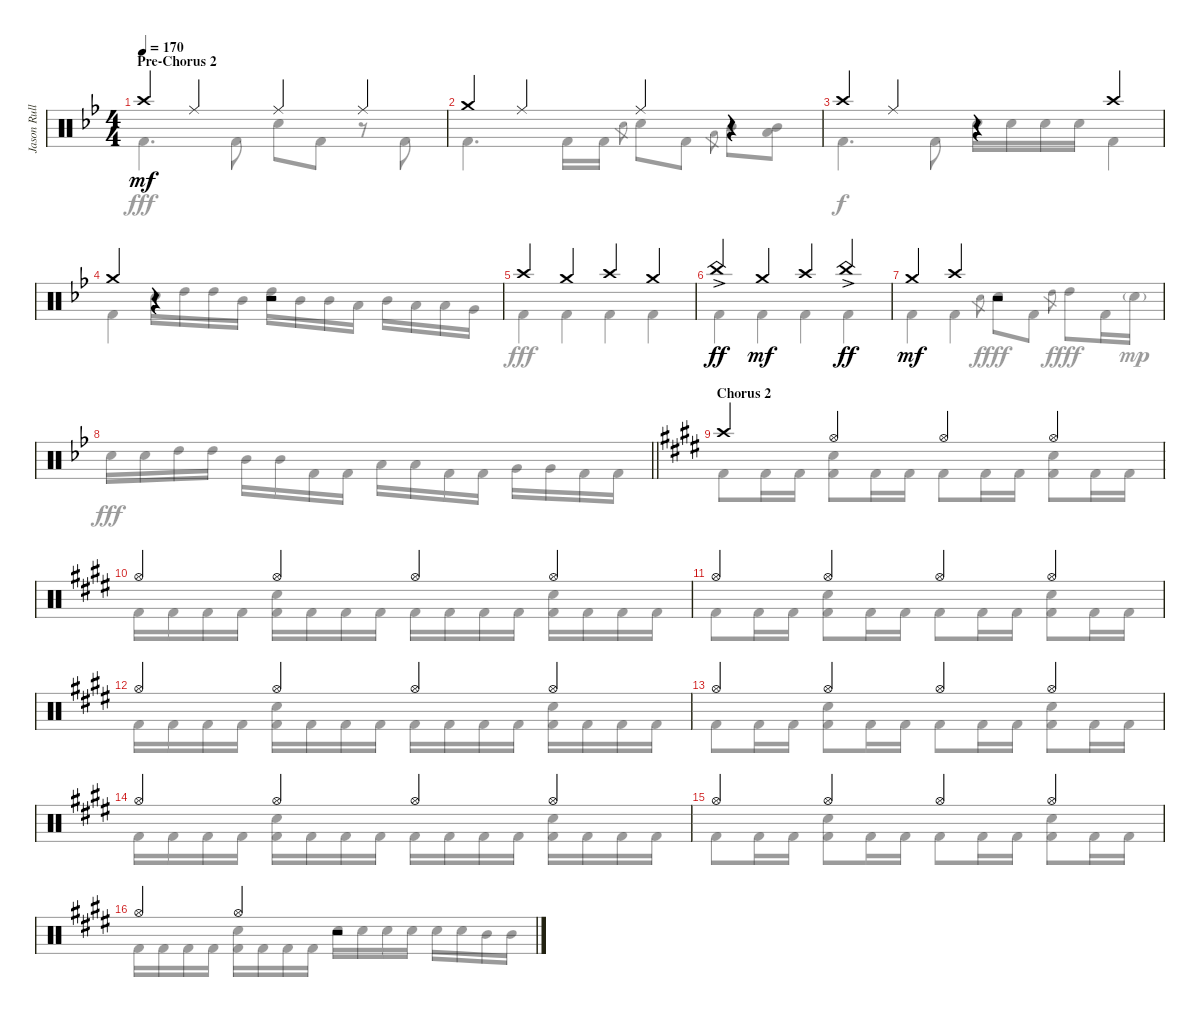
\track ("Jason Rullo Drums" "Jason Rull") {instrument percussion}
\staff {score}
\articulation defaults
\voice
\ts (4 4)
\section ("" "Pre-Chorus 2")
\tempo 170
\clef neutral
\ks gminor "Crash high (hit)".4{dy mf} "Ride (middle)".4 "Ride (middle)".4 "Ride (middle)".4
|
"Crash medium (hit)".4 "Ride (middle)".4 "Ride (middle)".4 r.4 |
"Crash high (hit)".4 "Ride (middle)".4 r.4 "Crash high (hit)".4 |
"Crash medium (hit)".4 r.4 r.2 |
"Crash high (hit)".4 "Crash medium (hit)".4 "Crash high (hit)".4 "Crash medium (hit)".4 |
"China (hit)"{ac}.4{dy ff} "Crash medium (hit)".4{dy mf} "Crash high (hit)".4 "China (hit)"{ac}.4{dy ff} |
"Crash medium (hit)".4{dy mf} "Crash high (hit)".4 r.2 |
\barLineRight lightlight
|
\section ("" "Chorus 2")
\ks c#minor "Crash high (hit)".4 "Hi-Hat (open)".4 "Hi-Hat (open)".4 "Hi-Hat (open)".4
|
"Hi-Hat (open)".4 "Hi-Hat (open)".4 "Hi-Hat (open)".4 "Hi-Hat (open)".4 |
"Hi-Hat (open)".4 "Hi-Hat (open)".4 "Hi-Hat (open)".4 "Hi-Hat (open)".4 |
"Hi-Hat (open)".4 "Hi-Hat (open)".4 "Hi-Hat (open)".4 "Hi-Hat (open)".4 |
"Hi-Hat (open)".4 "Hi-Hat (open)".4 "Hi-Hat (open)".4 "Hi-Hat (open)".4 |
"Hi-Hat (open)".4 "Hi-Hat (open)".4 "Hi-Hat (open)".4 "Hi-Hat (open)".4 |
"Hi-Hat (open)".4 "Hi-Hat (open)".4 "Hi-Hat (open)".4 "Hi-Hat (open)".4 |
"Hi-Hat (open)".4 "Hi-Hat (open)".4 r.2
\voice
\clef neutral
\ottava regular
\simile none
\ks gminor "Kick (hit) 2".4{d dy fff} "Kick (hit) 2".8 "Electric Snare (hit)".8 "Kick (hit) 2".8
r.8 "Kick (hit) 2".8 |
"Kick (hit) 2".4{d} "Kick (hit) 2".16 "Kick (hit) 2".16 "Electric Snare (hit)".8{gr} "Electric Snare (hit)".8 "Kick (hit) 2".8 "Low Tom (hit)".8{gr} "Mid Tom (hit)".8 ("Mid Tom (hit)" "Low Tom (hit)").8 |
"Kick (hit) 2".4{d dy f} "Kick (hit) 2".8 "Electric Snare (hit)".16 "Electric Snare (hit)".16 "Electric Snare (hit)".16 "Electric Snare (hit)".16 "Kick (hit) 2".4 |
"Kick (hit) 2".4 "Electric Snare (hit)".16 "High Tom (hit)".16 "High Tom (hit)".16 "Mid Tom (hit)".16 "High Tom (hit)".16 "Mid Tom (hit)".16 "Mid Tom (hit)".16 "Low Tom (hit)".16 "Mid Tom (hit)".16 "Low Tom (hit)".16 "Low Tom (hit)".16 "Very Low Tom (hit)".16 |
"Kick (hit) 2".4{dy fff} "Kick (hit) 2".4 "Kick (hit) 2".4 "Kick (hit) 2".4 |
"Kick (hit) 2".4 "Kick (hit) 2".4 "Kick (hit) 2".4 "Kick (hit) 2".4 |
"Kick (hit) 2".4 "Kick (hit) 2".4 "Electric Snare (hit)".8{gr dy f} "Electric Snare (hit)".8{dy fff} "Kick (hit) 2".8 "High Tom (hit)".8{gr dy f} "High Tom (hit)".8{dy fff} "Kick (hit) 2".16 "Electric Snare (hit)"{g}.16{dy mp} |
\barLineRight lightlight "Electric Snare (hit)".16{dy fff} "Electric Snare (hit)".16 "High Tom (hit)".16 "High Tom (hit)".16 "Mid Tom (hit)".16 "Mid Tom (hit)".16 "Kick (hit) 2".16 "Kick (hit) 2".16 "Low Tom (hit)".16 "Low Tom (hit)".16 "Kick (hit) 2".16 "Kick (hit) 2".16 "Very Low Tom (hit)".16 "Very Low Tom (hit)".16 "Kick (hit) 2".16 "Kick (hit) 2".16
|
\ks c#minor "Kick (hit) 2".8 "Kick (hit) 2".16 "Kick (hit) 2".16
("Electric Snare (hit)" "Kick (hit) 2").8 "Kick (hit) 2".16 "Kick (hit) 2".16 "Kick (hit) 2".8 "Kick (hit) 2".16 "Kick (hit) 2".16 ("Electric Snare (hit)" "Kick (hit) 2").8 "Kick (hit) 2".16 "Kick (hit) 2".16 |
"Kick (hit) 2".16 "Kick (hit) 2".16 "Kick (hit) 2".16 "Kick (hit) 2".16 ("Electric Snare (hit)" "Kick (hit) 2").16 "Kick (hit) 2".16 "Kick (hit) 2".16 "Kick (hit) 2".16 "Kick (hit) 2".16 "Kick (hit) 2".16 "Kick (hit) 2".16 "Kick (hit) 2".16 ("Electric Snare (hit)" "Kick (hit) 2").16 "Kick (hit) 2".16 "Kick (hit) 2".16 "Kick (hit) 2".16 |
"Kick (hit) 2".8 "Kick (hit) 2".16 "Kick (hit) 2".16 ("Electric Snare (hit)" "Kick (hit) 2").8 "Kick (hit) 2".16 "Kick (hit) 2".16 "Kick (hit) 2".8 "Kick (hit) 2".16 "Kick (hit) 2".16 ("Electric Snare (hit)" "Kick (hit) 2").8 "Kick (hit) 2".16 "Kick (hit) 2".16 |
"Kick (hit) 2".16 "Kick (hit) 2".16 "Kick (hit) 2".16 "Kick (hit) 2".16 ("Electric Snare (hit)" "Kick (hit) 2").16 "Kick (hit) 2".16 "Kick (hit) 2".16 "Kick (hit) 2".16 "Kick (hit) 2".16 "Kick (hit) 2".16 "Kick (hit) 2".16 "Kick (hit) 2".16 ("Electric Snare (hit)" "Kick (hit) 2").16 "Kick (hit) 2".16 "Kick (hit) 2".16 "Kick (hit) 2".16 |
"Kick (hit) 2".8 "Kick (hit) 2".16 "Kick (hit) 2".16 ("Electric Snare (hit)" "Kick (hit) 2").8 "Kick (hit) 2".16 "Kick (hit) 2".16 "Kick (hit) 2".8 "Kick (hit) 2".16 "Kick (hit) 2".16 ("Electric Snare (hit)" "Kick (hit) 2").8 "Kick (hit) 2".16 "Kick (hit) 2".16 |
"Kick (hit) 2".16 "Kick (hit) 2".16 "Kick (hit) 2".16 "Kick (hit) 2".16 ("Electric Snare (hit)" "Kick (hit) 2").16 "Kick (hit) 2".16 "Kick (hit) 2".16 "Kick (hit) 2".16 "Kick (hit) 2".16 "Kick (hit) 2".16 "Kick (hit) 2".16 "Kick (hit) 2".16 ("Electric Snare (hit)" "Kick (hit) 2").16 "Kick (hit) 2".16 "Kick (hit) 2".16 "Kick (hit) 2".16 |
"Kick (hit) 2".8 "Kick (hit) 2".16 "Kick (hit) 2".16 ("Electric Snare (hit)" "Kick (hit) 2").8 "Kick (hit) 2".16 "Kick (hit) 2".16 "Kick (hit) 2".8 "Kick (hit) 2".16 "Kick (hit) 2".16 ("Electric Snare (hit)" "Kick (hit) 2").8 "Kick (hit) 2".16 "Kick (hit) 2".16 |
"Kick (hit) 2".16 "Kick (hit) 2".16 "Kick (hit) 2".16 "Kick (hit) 2".16 ("Electric Snare (hit)" "Kick (hit) 2").16 "Kick (hit) 2".16 "Kick (hit) 2".16 "Kick (hit) 2".16 "Electric Snare (hit)".16 "Electric Snare (hit)".16 "Electric Snare (hit)".16 "Electric Snare (hit)".16 "Electric Snare (hit)".16 "Electric Snare (hit)".16 "Mid Tom (hit)".16 "Mid Tom (hit)".16
